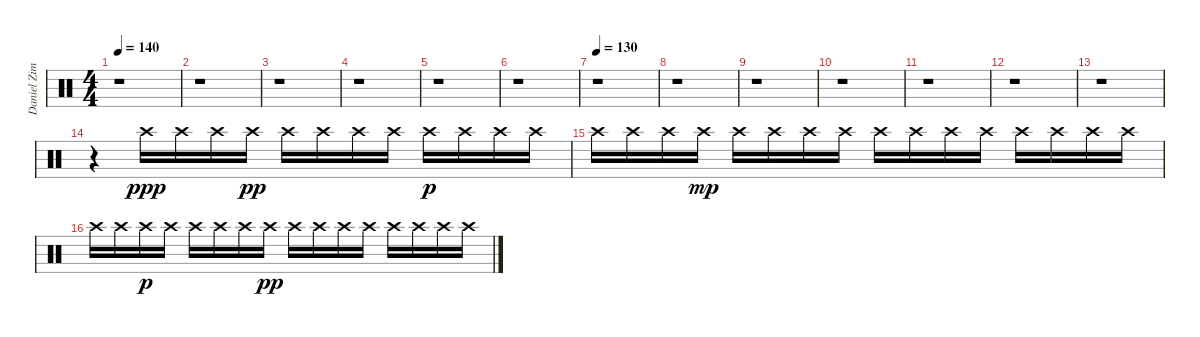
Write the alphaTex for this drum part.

\track ("Daniel Zimmermann - Drums" "Daniel Zim") {instrument percussion}
\staff {score}
\articulation defaults
\ts (4 4)
\tempo 140
\clef neutral
\ks c
r.1{dy f} |
r.1 |
r.1 |
r.1 |
r.1 |
r.1 |
\tempo 130
r.1 |
r.1 |
r.1 |
r.1 |
r.1 |
r.1 |
r.1 |
r.4 "Crash high (hit)".16{dy ppp} "Crash high (hit)".16 "Crash high (hit)".16 "Crash high (hit)".16{dy pp} "Crash high (hit)".16 "Crash high (hit)".16 "Crash high (hit)".16 "Crash high (hit)".16 "Crash high (hit)".16{dy p} "Crash high (hit)".16 "Crash high (hit)".16 "Crash high (hit)".16 |
"Crash high (hit)".16 "Crash high (hit)".16 "Crash high (hit)".16 "Crash high (hit)".16{dy mp} "Crash high (hit)".16 "Crash high (hit)".16 "Crash high (hit)".16 "Crash high (hit)".16 "Crash high (hit)".16 "Crash high (hit)".16 "Crash high (hit)".16 "Crash high (hit)".16 "Crash high (hit)".16 "Crash high (hit)".16 "Crash high (hit)".16 "Crash high (hit)".16 |
"Crash high (hit)".16 "Crash high (hit)".16 "Crash high (hit)".16{dy p} "Crash high (hit)".16 "Crash high (hit)".16 "Crash high (hit)".16 "Crash high (hit)".16 "Crash high (hit)".16{dy pp} "Crash high (hit)".16 "Crash high (hit)".16 "Crash high (hit)".16 "Crash high (hit)".16 "Crash high (hit)".16 "Crash high (hit)".16 "Crash high (hit)".16 "Crash high (hit)".16
